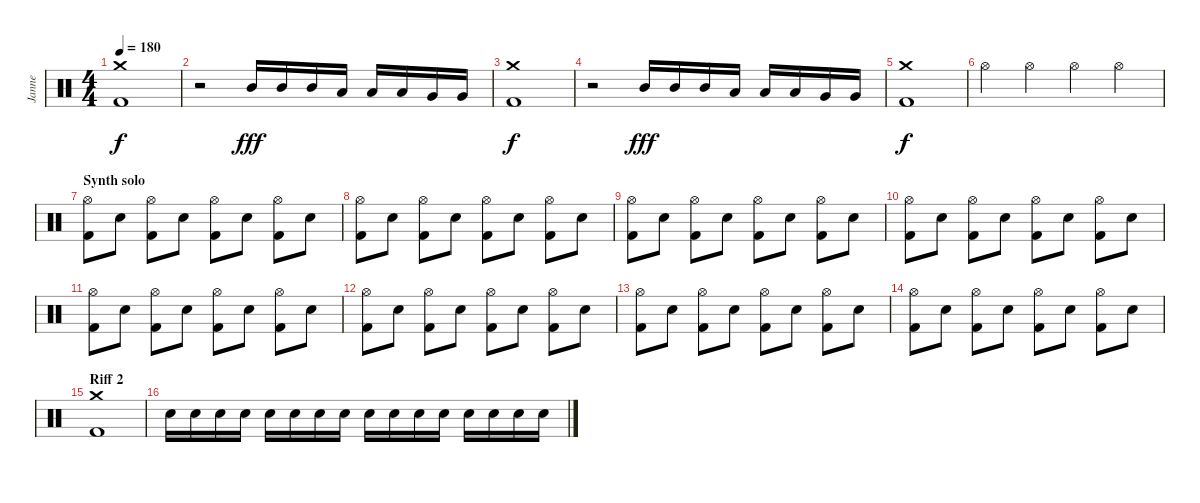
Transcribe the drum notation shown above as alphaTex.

\track ("Janne" "Janne") {instrument percussion}
\staff {score}
\articulation defaults
\ts (4 4)
\tempo 180
\clef neutral
\ks c
("Crash medium (hit)" "Kick (hit) 2").1{dy f} |
r.2 "Mid Tom (hit)".16{dy fff} "Mid Tom (hit)".16 "Mid Tom (hit)".16 "Low Tom (hit)".16 "Low Tom (hit)".16 "Low Tom (hit)".16 "Very Low Tom (hit)".16 "Very Low Tom (hit)".16 |
("Crash medium (hit)" "Kick (hit) 2").1{dy f} |
r.2 "Mid Tom (hit)".16{dy fff} "Mid Tom (hit)".16 "Mid Tom (hit)".16 "Low Tom (hit)".16 "Low Tom (hit)".16 "Low Tom (hit)".16 "Very Low Tom (hit)".16 "Very Low Tom (hit)".16 |
("Crash medium (hit)" "Kick (hit) 2").1{dy f} |
"Hi-Hat (open)".4 "Hi-Hat (open)".4 "Hi-Hat (open)".4 "Hi-Hat (open)".4 |
\section ("" "Synth solo")
("Hi-Hat (open)" "Kick (hit) 2").8 "Electric Snare (hit)".8 ("Hi-Hat (open)" "Kick (hit) 2").8 "Electric Snare (hit)".8 ("Hi-Hat (open)" "Kick (hit) 2").8 "Electric Snare (hit)".8 ("Hi-Hat (open)" "Kick (hit) 2").8 "Electric Snare (hit)".8 |
("Hi-Hat (open)" "Kick (hit) 2").8 "Electric Snare (hit)".8 ("Hi-Hat (open)" "Kick (hit) 2").8 "Electric Snare (hit)".8 ("Hi-Hat (open)" "Kick (hit) 2").8 "Electric Snare (hit)".8 ("Hi-Hat (open)" "Kick (hit) 2").8 "Electric Snare (hit)".8 |
("Hi-Hat (open)" "Kick (hit) 2").8 "Electric Snare (hit)".8 ("Hi-Hat (open)" "Kick (hit) 2").8 "Electric Snare (hit)".8 ("Hi-Hat (open)" "Kick (hit) 2").8 "Electric Snare (hit)".8 ("Hi-Hat (open)" "Kick (hit) 2").8 "Electric Snare (hit)".8 |
("Hi-Hat (open)" "Kick (hit) 2").8 "Electric Snare (hit)".8 ("Hi-Hat (open)" "Kick (hit) 2").8 "Electric Snare (hit)".8 ("Hi-Hat (open)" "Kick (hit) 2").8 "Electric Snare (hit)".8 ("Hi-Hat (open)" "Kick (hit) 2").8 "Electric Snare (hit)".8 |
("Hi-Hat (open)" "Kick (hit) 2").8 "Electric Snare (hit)".8 ("Hi-Hat (open)" "Kick (hit) 2").8 "Electric Snare (hit)".8 ("Hi-Hat (open)" "Kick (hit) 2").8 "Electric Snare (hit)".8 ("Hi-Hat (open)" "Kick (hit) 2").8 "Electric Snare (hit)".8 |
("Hi-Hat (open)" "Kick (hit) 2").8 "Electric Snare (hit)".8 ("Hi-Hat (open)" "Kick (hit) 2").8 "Electric Snare (hit)".8 ("Hi-Hat (open)" "Kick (hit) 2").8 "Electric Snare (hit)".8 ("Hi-Hat (open)" "Kick (hit) 2").8 "Electric Snare (hit)".8 |
("Hi-Hat (open)" "Kick (hit) 2").8 "Electric Snare (hit)".8 ("Hi-Hat (open)" "Kick (hit) 2").8 "Electric Snare (hit)".8 ("Hi-Hat (open)" "Kick (hit) 2").8 "Electric Snare (hit)".8 ("Hi-Hat (open)" "Kick (hit) 2").8 "Electric Snare (hit)".8 |
("Hi-Hat (open)" "Kick (hit) 2").8 "Electric Snare (hit)".8 ("Hi-Hat (open)" "Kick (hit) 2").8 "Electric Snare (hit)".8 ("Hi-Hat (open)" "Kick (hit) 2").8 "Electric Snare (hit)".8 ("Hi-Hat (open)" "Kick (hit) 2").8 "Electric Snare (hit)".8 |
\section ("" "Riff 2")
("Crash medium (hit)" "Kick (hit) 2").1 |
"Electric Snare (hit)".16 "Electric Snare (hit)".16 "Electric Snare (hit)".16 "Electric Snare (hit)".16 "Electric Snare (hit)".16 "Electric Snare (hit)".16 "Electric Snare (hit)".16 "Electric Snare (hit)".16 "Electric Snare (hit)".16 "Electric Snare (hit)".16 "Electric Snare (hit)".16 "Electric Snare (hit)".16 "Electric Snare (hit)".16 "Electric Snare (hit)".16 "Electric Snare (hit)".16 "Electric Snare (hit)".16
